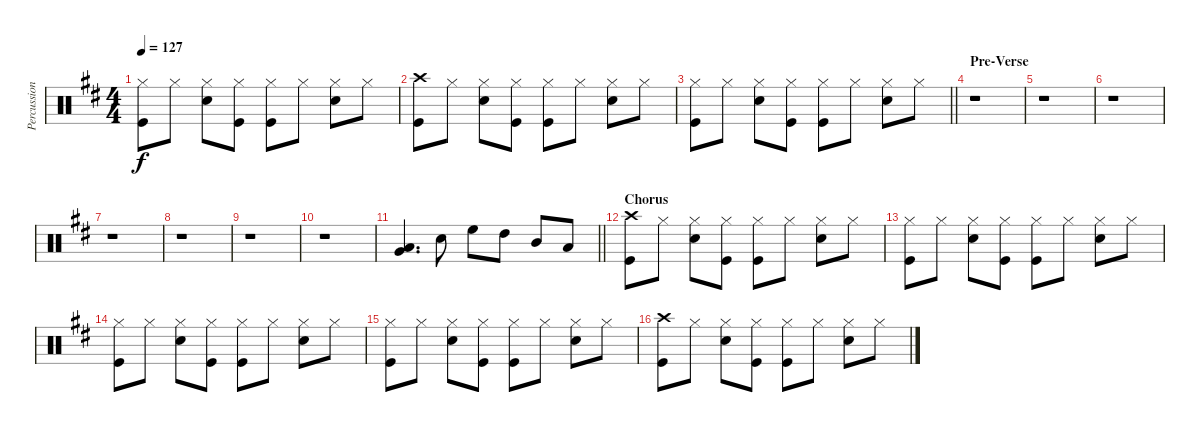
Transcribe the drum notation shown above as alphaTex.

\track ("Percussion" "Percussion") {instrument percussion}
\staff {score}
\articulation defaults
\ts (4 4)
\tempo 127
\clef neutral
\ks d
("Hi-Hat (closed)" "Kick (hit)").8{dy f} "Hi-Hat (closed)".8 ("Hi-Hat (closed)" "Snare (hit) 2").8 ("Hi-Hat (closed)" "Kick (hit)").8 ("Hi-Hat (closed)" "Kick (hit)").8 "Hi-Hat (closed)".8 ("Hi-Hat (closed)" "Snare (hit) 2").8 "Hi-Hat (closed)".8 |
("Crash high (hit)" "Kick (hit)").8 "Hi-Hat (closed)".8 ("Hi-Hat (closed)" "Snare (hit) 2").8 ("Hi-Hat (closed)" "Kick (hit)").8 ("Hi-Hat (closed)" "Kick (hit)").8 "Hi-Hat (closed)".8 ("Hi-Hat (closed)" "Snare (hit) 2").8 "Hi-Hat (closed)".8 |
\barLineRight lightlight
("Hi-Hat (closed)" "Kick (hit)").8 "Hi-Hat (closed)".8 ("Hi-Hat (closed)" "Snare (hit) 2").8 ("Hi-Hat (closed)" "Kick (hit)").8 ("Hi-Hat (closed)" "Kick (hit)").8 "Hi-Hat (closed)".8 ("Hi-Hat (closed)" "Snare (hit) 2").8 "Hi-Hat (closed)".8 |
\section ("" "Pre-Verse")
r.1 |
r.1 |
r.1 |
r.1 |
r.1 |
r.1 |
r.1 |
\barLineRight lightlight
("Very Low Tom (hit)" "Low Floor Tom (hit)").4{d} "Snare (hit) 2".8 "High Floor Tom (hit)".8 "High Tom (hit)".8 "Mid Tom (hit)".8 "Low Tom (hit)".8 |
\section ("" "Chorus")
("Crash high (hit)" "Kick (hit)").8 "Hi-Hat (closed)".8 ("Hi-Hat (closed)" "Snare (hit) 2").8 ("Hi-Hat (closed)" "Kick (hit)").8 ("Hi-Hat (closed)" "Kick (hit)").8 "Hi-Hat (closed)".8 ("Hi-Hat (closed)" "Snare (hit) 2").8 "Hi-Hat (closed)".8 |
("Hi-Hat (closed)" "Kick (hit)").8 "Hi-Hat (closed)".8 ("Hi-Hat (closed)" "Snare (hit) 2").8 ("Hi-Hat (closed)" "Kick (hit)").8 ("Hi-Hat (closed)" "Kick (hit)").8 "Hi-Hat (closed)".8 ("Hi-Hat (closed)" "Snare (hit) 2").8 "Hi-Hat (closed)".8 |
("Hi-Hat (closed)" "Kick (hit)").8 "Hi-Hat (closed)".8 ("Hi-Hat (closed)" "Snare (hit) 2").8 ("Hi-Hat (closed)" "Kick (hit)").8 ("Hi-Hat (closed)" "Kick (hit)").8 "Hi-Hat (closed)".8 ("Hi-Hat (closed)" "Snare (hit) 2").8 "Hi-Hat (closed)".8 |
("Hi-Hat (closed)" "Kick (hit)").8 "Hi-Hat (closed)".8 ("Hi-Hat (closed)" "Snare (hit) 2").8 ("Hi-Hat (closed)" "Kick (hit)").8 ("Hi-Hat (closed)" "Kick (hit)").8 "Hi-Hat (closed)".8 ("Hi-Hat (closed)" "Snare (hit) 2").8 "Hi-Hat (closed)".8 |
("Crash high (hit)" "Kick (hit)").8 "Hi-Hat (closed)".8 ("Hi-Hat (closed)" "Snare (hit) 2").8 ("Hi-Hat (closed)" "Kick (hit)").8 ("Hi-Hat (closed)" "Kick (hit)").8 "Hi-Hat (closed)".8 ("Hi-Hat (closed)" "Snare (hit) 2").8 "Hi-Hat (closed)".8
